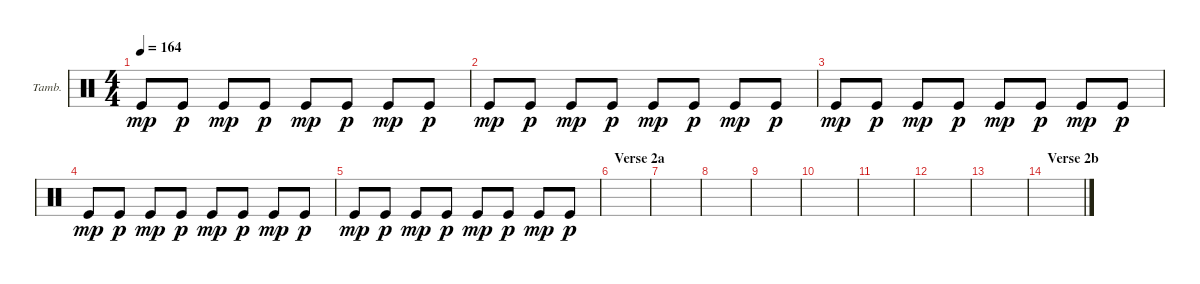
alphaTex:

\defaultSystemsLayout 4
\bracketExtendMode groupsimilarinstruments
\firstSystemTrackNameOrientation horizontal
\otherSystemsTrackNameOrientation horizontal
\track ("Tambourine" "Tamb.") {instrument percussion}
\staff {score}
\articulation defaults
\ts (4 4)
\tempo 164
\clef neutral
\scale
0.333333
\ks c "Kick (hit)".8{dy mp} "Kick (hit)".8{dy p} "Kick (hit)".8{dy mp} "Kick (hit)".8{dy p} "Kick (hit)".8{dy mp} "Kick (hit)".8{dy p} "Kick (hit)".8{dy mp} "Kick (hit)".8{dy p}
|
\scale
0.333333 "Kick (hit)".8{dy mp} "Kick (hit)".8{dy p} "Kick (hit)".8{dy mp} "Kick (hit)".8{dy p} "Kick (hit)".8{dy mp} "Kick (hit)".8{dy p} "Kick (hit)".8{dy mp} "Kick (hit)".8{dy p} |
\scale
0.333333 "Kick (hit)".8{dy mp} "Kick (hit)".8{dy p} "Kick (hit)".8{dy mp} "Kick (hit)".8{dy p} "Kick (hit)".8{dy mp} "Kick (hit)".8{dy p} "Kick (hit)".8{dy mp} "Kick (hit)".8{dy p} |
\scale
0.333333 "Kick (hit)".8{dy mp} "Kick (hit)".8{dy p} "Kick (hit)".8{dy mp} "Kick (hit)".8{dy p} "Kick (hit)".8{dy mp} "Kick (hit)".8{dy p} "Kick (hit)".8{dy mp} "Kick (hit)".8{dy p} |
\scale
0.333333 "Kick (hit)".8{dy mp} "Kick (hit)".8{dy p} "Kick (hit)".8{dy mp} "Kick (hit)".8{dy p} "Kick (hit)".8{dy mp} "Kick (hit)".8{dy p} "Kick (hit)".8{dy mp} "Kick (hit)".8{dy p} |
\section ("" "Verse 2a")
|
|
|
|
|
|
|
|
\section ("" "Verse 2b")
